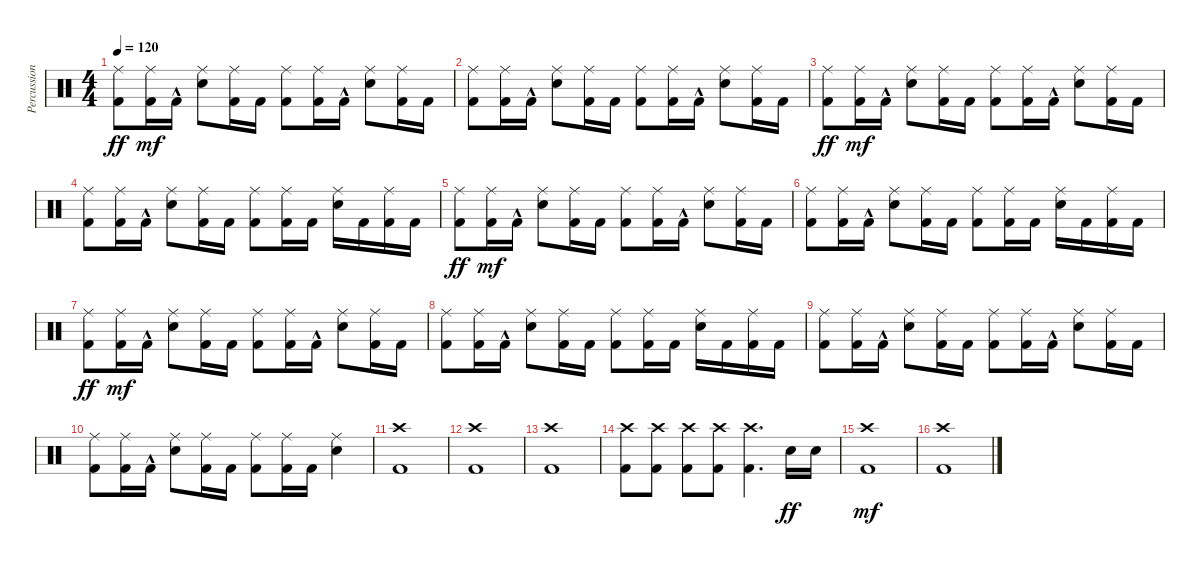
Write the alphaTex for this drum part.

\track ("Percussioni" "Percussion") {instrument percussion}
\staff {score}
\articulation defaults
\ts (4 4)
\tempo 120
\clef neutral
\ks c
("Kick (hit) 2" "Ride (middle)").8{dy ff} ("Kick (hit) 2" "Ride (middle)").16{dy mf} "Kick (hit) 2"{hac}.16 ("Snare (hit) 2" "Ride (middle)").8 ("Kick (hit) 2" "Ride (middle)").16 "Kick (hit) 2".16 ("Kick (hit) 2" "Ride (middle)").8 ("Kick (hit) 2" "Ride (middle)").16 "Kick (hit) 2"{hac}.16 ("Snare (hit) 2" "Ride (middle)").8 ("Kick (hit) 2" "Ride (middle)").16 "Kick (hit) 2".16 |
("Kick (hit) 2" "Ride (middle)").8 ("Kick (hit) 2" "Ride (middle)").16 "Kick (hit) 2"{hac}.16 ("Snare (hit) 2" "Ride (middle)").8 ("Kick (hit) 2" "Ride (middle)").16 "Kick (hit) 2".16 ("Kick (hit) 2" "Ride (middle)").8 ("Kick (hit) 2" "Ride (middle)").16 "Kick (hit) 2"{hac}.16 ("Snare (hit) 2" "Ride (middle)").8 ("Kick (hit) 2" "Ride (middle)").16 "Kick (hit) 2".16 |
("Kick (hit) 2" "Ride (middle)").8{dy ff} ("Kick (hit) 2" "Ride (middle)").16{dy mf} "Kick (hit) 2"{hac}.16 ("Snare (hit) 2" "Ride (middle)").8 ("Kick (hit) 2" "Ride (middle)").16 "Kick (hit) 2".16 ("Kick (hit) 2" "Ride (middle)").8 ("Kick (hit) 2" "Ride (middle)").16 "Kick (hit) 2"{hac}.16 ("Snare (hit) 2" "Ride (middle)").8 ("Kick (hit) 2" "Ride (middle)").16 "Kick (hit) 2".16 |
("Kick (hit) 2" "Ride (middle)").8 ("Kick (hit) 2" "Ride (middle)").16 "Kick (hit) 2"{hac}.16 ("Snare (hit) 2" "Ride (middle)").8 ("Kick (hit) 2" "Ride (middle)").16 "Kick (hit) 2".16 ("Kick (hit) 2" "Ride (middle)").8 ("Kick (hit) 2" "Ride (middle)").16 "Kick (hit) 2".16 ("Snare (hit) 2" "Ride (middle)").16 "Kick (hit) 2".16 ("Kick (hit) 2" "Ride (middle)").16 "Kick (hit) 2".16 |
("Kick (hit) 2" "Ride (middle)").8{dy ff} ("Kick (hit) 2" "Ride (middle)").16{dy mf} "Kick (hit) 2"{hac}.16 ("Snare (hit) 2" "Ride (middle)").8 ("Kick (hit) 2" "Ride (middle)").16 "Kick (hit) 2".16 ("Kick (hit) 2" "Ride (middle)").8 ("Kick (hit) 2" "Ride (middle)").16 "Kick (hit) 2"{hac}.16 ("Snare (hit) 2" "Ride (middle)").8 ("Kick (hit) 2" "Ride (middle)").16 "Kick (hit) 2".16 |
("Kick (hit) 2" "Ride (middle)").8 ("Kick (hit) 2" "Ride (middle)").16 "Kick (hit) 2"{hac}.16 ("Snare (hit) 2" "Ride (middle)").8 ("Kick (hit) 2" "Ride (middle)").16 "Kick (hit) 2".16 ("Kick (hit) 2" "Ride (middle)").8 ("Kick (hit) 2" "Ride (middle)").16 "Kick (hit) 2".16 ("Snare (hit) 2" "Ride (middle)").16 "Kick (hit) 2".16 ("Kick (hit) 2" "Ride (middle)").16 "Kick (hit) 2".16 |
("Kick (hit) 2" "Ride (middle)").8{dy ff} ("Kick (hit) 2" "Ride (middle)").16{dy mf} "Kick (hit) 2"{hac}.16 ("Snare (hit) 2" "Ride (middle)").8 ("Kick (hit) 2" "Ride (middle)").16 "Kick (hit) 2".16 ("Kick (hit) 2" "Ride (middle)").8 ("Kick (hit) 2" "Ride (middle)").16 "Kick (hit) 2"{hac}.16 ("Snare (hit) 2" "Ride (middle)").8 ("Kick (hit) 2" "Ride (middle)").16 "Kick (hit) 2".16 |
("Kick (hit) 2" "Ride (middle)").8 ("Kick (hit) 2" "Ride (middle)").16 "Kick (hit) 2"{hac}.16 ("Snare (hit) 2" "Ride (middle)").8 ("Kick (hit) 2" "Ride (middle)").16 "Kick (hit) 2".16 ("Kick (hit) 2" "Ride (middle)").8 ("Kick (hit) 2" "Ride (middle)").16 "Kick (hit) 2".16 ("Snare (hit) 2" "Ride (middle)").16 "Kick (hit) 2".16 ("Kick (hit) 2" "Ride (middle)").16 "Kick (hit) 2".16 |
("Kick (hit) 2" "Ride (middle)").8 ("Kick (hit) 2" "Ride (middle)").16 "Kick (hit) 2"{hac}.16 ("Snare (hit) 2" "Ride (middle)").8 ("Kick (hit) 2" "Ride (middle)").16 "Kick (hit) 2".16 ("Kick (hit) 2" "Ride (middle)").8 ("Kick (hit) 2" "Ride (middle)").16 "Kick (hit) 2"{hac}.16 ("Snare (hit) 2" "Ride (middle)").8 ("Kick (hit) 2" "Ride (middle)").16 "Kick (hit) 2".16 |
("Kick (hit) 2" "Ride (middle)").8 ("Kick (hit) 2" "Ride (middle)").16 "Kick (hit) 2"{hac}.16 ("Snare (hit) 2" "Ride (middle)").8 ("Kick (hit) 2" "Ride (middle)").16 "Kick (hit) 2".16 ("Kick (hit) 2" "Ride (middle)").8 ("Kick (hit) 2" "Ride (middle)").16 "Kick (hit) 2".16 ("Snare (hit) 2" "Ride (middle)").4 |
("Kick (hit) 2" "Crash high (hit)").1 |
("Kick (hit) 2" "Crash high (hit)").1 |
("Kick (hit) 2" "Crash high (hit)").1 |
("Kick (hit) 2" "Crash high (hit)").8 ("Kick (hit) 2" "Crash high (hit)").8 ("Kick (hit) 2" "Crash high (hit)").8 ("Kick (hit) 2" "Crash high (hit)").8 ("Kick (hit) 2" "Crash high (hit)").4{d} "Snare (hit) 2".16{dy ff} "Snare (hit) 2".16 |
("Kick (hit) 2" "Crash high (hit)").1{dy mf} |
("Kick (hit) 2" "Crash high (hit)").1
